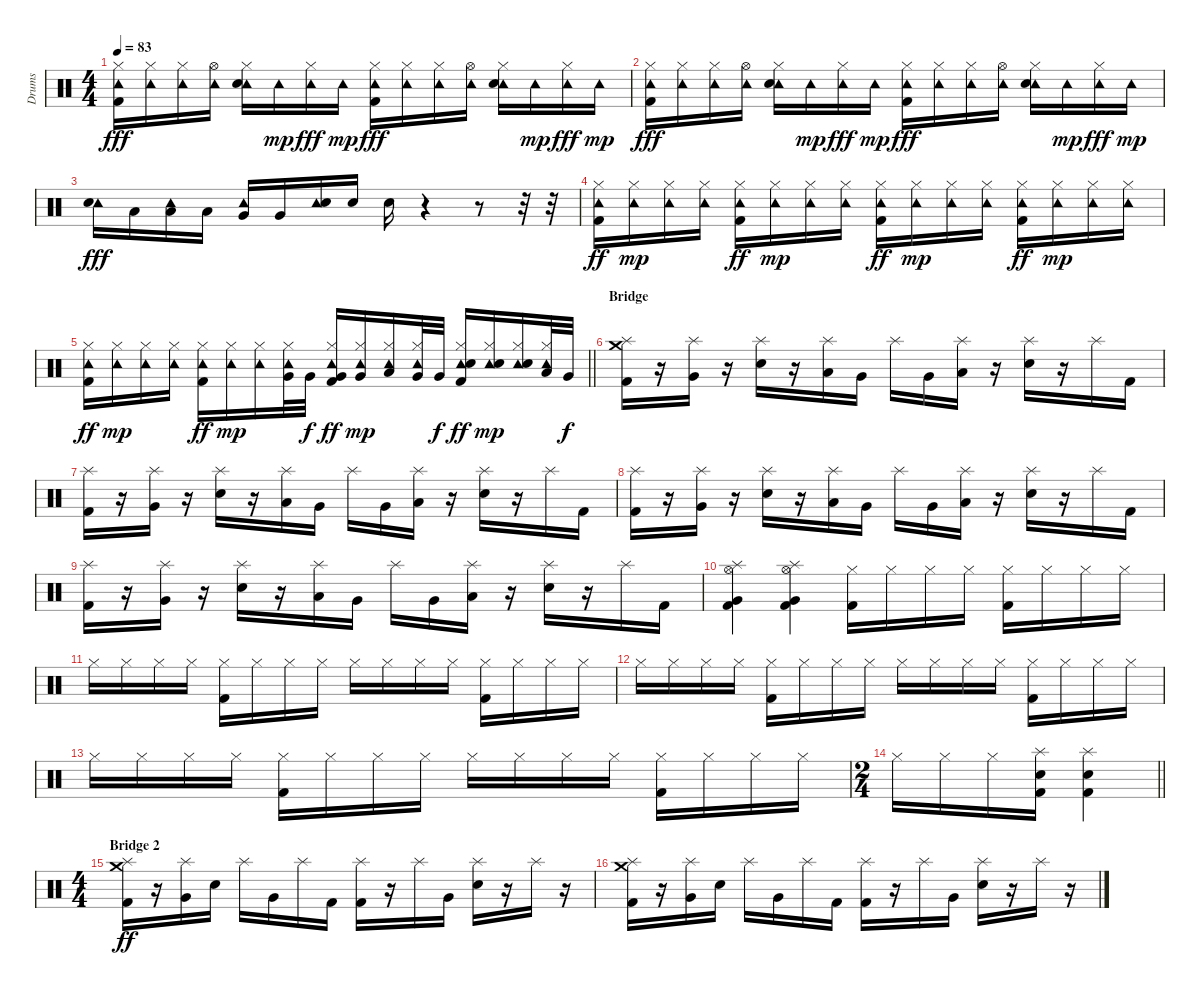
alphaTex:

\track ("Drums" "Drums") {instrument percussion}
\staff {score}
\articulation defaults
\ts (4 4)
\tempo 83
\clef neutral
\ks c
("Tambourine (hit)" "Hi-Hat (closed)" "Kick (hit) 2").16{dy fff} ("Tambourine (hit)" "Hi-Hat (closed)").16 ("Tambourine (hit)" "Hi-Hat (closed)").16 ("Tambourine (hit)" "Hi-Hat (open)").16 ("Tambourine (hit)" "Hi-Hat (closed)" "Snare (hit) 2").16 "Tambourine (hit)".16{dy mp} ("Tambourine (hit)" "Hi-Hat (closed)").16{dy fff} "Tambourine (hit)".16{dy mp} ("Tambourine (hit)" "Hi-Hat (closed)" "Kick (hit) 2").16{dy fff} ("Tambourine (hit)" "Hi-Hat (closed)").16 ("Tambourine (hit)" "Hi-Hat (closed)").16 ("Tambourine (hit)" "Hi-Hat (open)").16 ("Tambourine (hit)" "Hi-Hat (closed)" "Snare (hit) 2").16 "Tambourine (hit)".16{dy mp} ("Tambourine (hit)" "Hi-Hat (closed)").16{dy fff} "Tambourine (hit)".16{dy mp} |
("Tambourine (hit)" "Hi-Hat (closed)" "Kick (hit) 2").16{dy fff} ("Tambourine (hit)" "Hi-Hat (closed)").16 ("Tambourine (hit)" "Hi-Hat (closed)").16 ("Tambourine (hit)" "Hi-Hat (open)").16 ("Tambourine (hit)" "Hi-Hat (closed)" "Snare (hit) 2").16 "Tambourine (hit)".16{dy mp} ("Tambourine (hit)" "Hi-Hat (closed)").16{dy fff} "Tambourine (hit)".16{dy mp} ("Tambourine (hit)" "Hi-Hat (closed)" "Kick (hit) 2").16{dy fff} ("Tambourine (hit)" "Hi-Hat (closed)").16 ("Tambourine (hit)" "Hi-Hat (closed)").16 ("Tambourine (hit)" "Hi-Hat (open)").16 ("Tambourine (hit)" "Hi-Hat (closed)" "Snare (hit) 2").16 "Tambourine (hit)".16{dy mp} ("Tambourine (hit)" "Hi-Hat (closed)").16{dy fff} "Tambourine (hit)".16{dy mp} |
("Tambourine (hit)" "Snare (hit) 2").16{dy fff} "Low Floor Tom (hit)".16 ("Tambourine (hit)" "Low Floor Tom (hit)").16 "Low Floor Tom (hit)".16 ("Tambourine (hit)" "Very Low Tom (hit)").16 "Very Low Tom (hit)".16 ("Tambourine (hit)" "Snare (hit) 2").16 "Snare (hit) 2".16 "Snare (hit) 2".16 r.4 r.8 r.32 r.32 |
("Hi-Hat (closed)" "Tambourine (hit)" "Kick (hit) 2").16{dy ff} ("Hi-Hat (closed)" "Tambourine (hit)").16{dy mp} ("Hi-Hat (closed)" "Tambourine (hit)").16 ("Hi-Hat (closed)" "Tambourine (hit)").16 ("Hi-Hat (closed)" "Tambourine (hit)" "Kick (hit) 2").16{dy ff} ("Hi-Hat (closed)" "Tambourine (hit)").16{dy mp} ("Hi-Hat (closed)" "Tambourine (hit)").16 ("Hi-Hat (closed)" "Tambourine (hit)").16 ("Hi-Hat (closed)" "Tambourine (hit)" "Kick (hit) 2").16{dy ff} ("Hi-Hat (closed)" "Tambourine (hit)").16{dy mp} ("Hi-Hat (closed)" "Tambourine (hit)").16 ("Hi-Hat (closed)" "Tambourine (hit)").16 ("Hi-Hat (closed)" "Tambourine (hit)" "Kick (hit) 2").16{dy ff} ("Hi-Hat (closed)" "Tambourine (hit)").16{dy mp} ("Hi-Hat (closed)" "Tambourine (hit)").16 ("Hi-Hat (closed)" "Tambourine (hit)").16 |
\barLineRight lightlight
("Hi-Hat (closed)" "Tambourine (hit)" "Kick (hit) 2").16{dy ff} ("Hi-Hat (closed)" "Tambourine (hit)").16{dy mp} ("Hi-Hat (closed)" "Tambourine (hit)").16 ("Hi-Hat (closed)" "Tambourine (hit)").16 ("Hi-Hat (closed)" "Tambourine (hit)" "Kick (hit) 2").16{dy ff} ("Hi-Hat (closed)" "Tambourine (hit)").16{dy mp} ("Hi-Hat (closed)" "Tambourine (hit)").16 ("Hi-Hat (closed)" "Tambourine (hit)" "Very Low Tom (hit)").32 "Very Low Tom (hit)".32{dy f} ("Hi-Hat (closed)" "Tambourine (hit)" "Very Low Tom (hit)" "Kick (hit) 2").16{dy ff} ("Hi-Hat (closed)" "Tambourine (hit)" "Very Low Tom (hit)").16{dy mp} ("Hi-Hat (closed)" "Tambourine (hit)" "Low Floor Tom (hit)").16 ("Hi-Hat (closed)" "Tambourine (hit)" "Very Low Tom (hit)").32 "Very Low Tom (hit)".32{dy f} ("Hi-Hat (closed)" "Tambourine (hit)" "Snare (hit) 2" "Kick (hit) 2").16{dy ff} ("Hi-Hat (closed)" "Tambourine (hit)" "Snare (hit) 2").16{dy mp} ("Hi-Hat (closed)" "Tambourine (hit)" "Snare (hit) 2").16 ("Hi-Hat (closed)" "Tambourine (hit)" "Low Floor Tom (hit)").32 "Very Low Tom (hit)".32{dy f} |
\section ("" "Bridge")
("Crash medium (hit)" "Splash (hit)" "Kick (hit) 2").16 r.16 ("Splash (hit)" "Very Low Tom (hit)").16 r.16 ("Splash (hit)" "Snare (hit) 2").16 r.16 ("Splash (hit)" "Low Floor Tom (hit)").16 "Very Low Tom (hit)".16 "Splash (hit)".16 "Very Low Tom (hit)".16 ("Splash (hit)" "Low Floor Tom (hit)").16 r.16 ("Splash (hit)" "Snare (hit) 2").16 r.16 "Splash (hit)".16 "Kick (hit) 2".16 |
("Splash (hit)" "Kick (hit) 2").16 r.16 ("Splash (hit)" "Very Low Tom (hit)").16 r.16 ("Splash (hit)" "Snare (hit) 2").16 r.16 ("Splash (hit)" "Low Floor Tom (hit)").16 "Very Low Tom (hit)".16 "Splash (hit)".16 "Very Low Tom (hit)".16 ("Splash (hit)" "Low Floor Tom (hit)").16 r.16 ("Splash (hit)" "Snare (hit) 2").16 r.16 "Splash (hit)".16 "Kick (hit) 2".16 |
("Splash (hit)" "Kick (hit) 2").16 r.16 ("Splash (hit)" "Very Low Tom (hit)").16 r.16 ("Splash (hit)" "Snare (hit) 2").16 r.16 ("Splash (hit)" "Low Floor Tom (hit)").16 "Very Low Tom (hit)".16 "Splash (hit)".16 "Very Low Tom (hit)".16 ("Splash (hit)" "Low Floor Tom (hit)").16 r.16 ("Splash (hit)" "Snare (hit) 2").16 r.16 "Splash (hit)".16 "Kick (hit) 2".16 |
("Splash (hit)" "Kick (hit) 2").16 r.16 ("Splash (hit)" "Very Low Tom (hit)").16 r.16 ("Splash (hit)" "Snare (hit) 2").16 r.16 ("Splash (hit)" "Low Floor Tom (hit)").16 "Very Low Tom (hit)".16 "Splash (hit)".16 "Very Low Tom (hit)".16 ("Splash (hit)" "Low Floor Tom (hit)").16 r.16 ("Splash (hit)" "Snare (hit) 2").16 r.16 "Splash (hit)".16 "Kick (hit) 2".16 |
("Very Low Tom (hit)" "Hi-Hat (open)" "Splash (hit)" "Kick (hit) 2").4 ("Very Low Tom (hit)" "Hi-Hat (open)" "Splash (hit)" "Kick (hit) 2").4 ("Hi-Hat (closed)" "Kick (hit) 2").16 "Hi-Hat (closed)".16 "Hi-Hat (closed)".16 "Hi-Hat (closed)".16 ("Hi-Hat (closed)" "Kick (hit) 2").16 "Hi-Hat (closed)".16 "Hi-Hat (closed)".16 "Hi-Hat (closed)".16 |
"Hi-Hat (closed)".16 "Hi-Hat (closed)".16 "Hi-Hat (closed)".16 "Hi-Hat (closed)".16 ("Hi-Hat (closed)" "Kick (hit) 2").16 "Hi-Hat (closed)".16 "Hi-Hat (closed)".16 "Hi-Hat (closed)".16 "Hi-Hat (closed)".16 "Hi-Hat (closed)".16 "Hi-Hat (closed)".16 "Hi-Hat (closed)".16 ("Hi-Hat (closed)" "Kick (hit) 2").16 "Hi-Hat (closed)".16 "Hi-Hat (closed)".16 "Hi-Hat (closed)".16 |
"Hi-Hat (closed)".16 "Hi-Hat (closed)".16 "Hi-Hat (closed)".16 "Hi-Hat (closed)".16 ("Hi-Hat (closed)" "Kick (hit) 2").16 "Hi-Hat (closed)".16 "Hi-Hat (closed)".16 "Hi-Hat (closed)".16 "Hi-Hat (closed)".16 "Hi-Hat (closed)".16 "Hi-Hat (closed)".16 "Hi-Hat (closed)".16 ("Hi-Hat (closed)" "Kick (hit) 2").16 "Hi-Hat (closed)".16 "Hi-Hat (closed)".16 "Hi-Hat (closed)".16 |
"Hi-Hat (closed)".16 "Hi-Hat (closed)".16 "Hi-Hat (closed)".16 "Hi-Hat (closed)".16 ("Hi-Hat (closed)" "Kick (hit) 2").16 "Hi-Hat (closed)".16 "Hi-Hat (closed)".16 "Hi-Hat (closed)".16 "Hi-Hat (closed)".16 "Hi-Hat (closed)".16 "Hi-Hat (closed)".16 "Hi-Hat (closed)".16 ("Hi-Hat (closed)" "Kick (hit) 2").16 "Hi-Hat (closed)".16 "Hi-Hat (closed)".16 "Hi-Hat (closed)".16 |
\ts (2 4)
\barLineRight lightlight "Hi-Hat (closed)".16 "Hi-Hat (closed)".16 "Hi-Hat (closed)".16
("Splash (hit)" "Snare (hit) 2" "Kick (hit) 2").16 ("Splash (hit)" "Snare (hit) 2" "Kick (hit) 2").4 |
\ts (4 4)
\section ("" "Bridge 2")
("Crash medium (hit)" "Splash (hit)" "Kick (hit) 2").16{dy ff} r.16 ("Splash (hit)" "Very Low Tom (hit)").16 "Snare (hit) 2".16 "Splash (hit)".16 "Very Low Tom (hit)".16 "Splash (hit)".16 "Kick (hit) 2".16 ("Splash (hit)" "Kick (hit) 2").16 r.16 "Splash (hit)".16 "Very Low Tom (hit)".16 ("Splash (hit)" "Snare (hit) 2").16 r.16 "Splash (hit)".16 r.16 |
("Crash medium (hit)" "Splash (hit)" "Kick (hit) 2").16 r.16 ("Splash (hit)" "Very Low Tom (hit)").16 "Snare (hit) 2".16 "Splash (hit)".16 "Very Low Tom (hit)".16 "Splash (hit)".16 "Kick (hit) 2".16 ("Splash (hit)" "Kick (hit) 2").16 r.16 "Splash (hit)".16 "Very Low Tom (hit)".16 ("Splash (hit)" "Snare (hit) 2").16 r.16 "Splash (hit)".16 r.16
